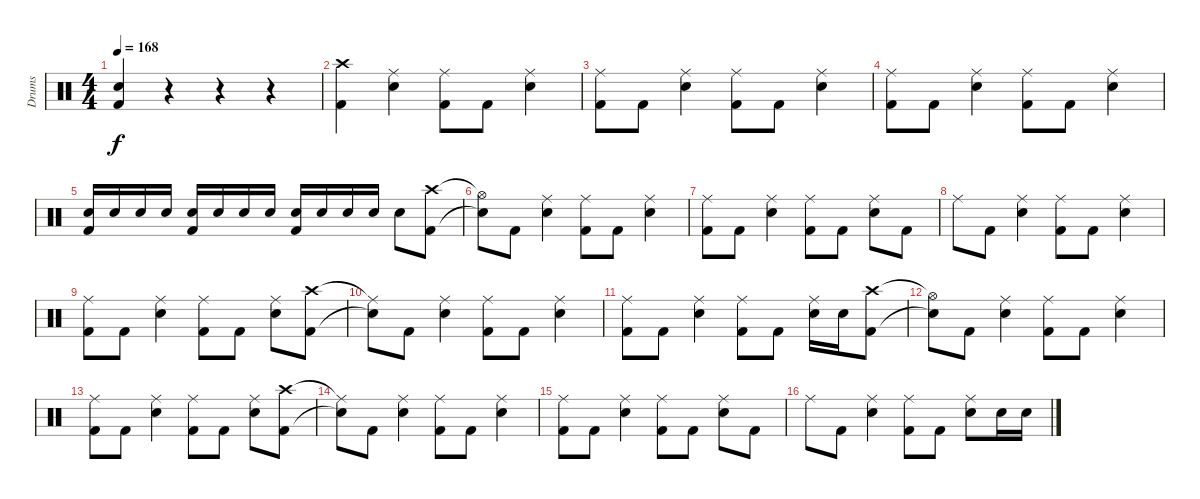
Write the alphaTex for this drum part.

\track ("Drums" "Drums") {instrument percussion}
\staff {score}
\articulation defaults
\ts (4 4)
\tempo 168
\clef neutral
\ks c
("Electric Snare (hit)" "Kick (hit) 2").4{dy f} r.4 r.4 r.4 |
("Crash high (hit)" "Kick (hit) 2").4 ("Ride (middle)" "Electric Snare (hit)").4 ("Ride (middle)" "Kick (hit) 2").8 "Kick (hit) 2".8 ("Ride (middle)" "Electric Snare (hit)").4 |
("Ride (middle)" "Kick (hit) 2").8 "Kick (hit) 2".8 ("Ride (middle)" "Electric Snare (hit)").4 ("Ride (middle)" "Kick (hit) 2").8 "Kick (hit) 2".8 ("Ride (middle)" "Electric Snare (hit)").4 |
("Ride (middle)" "Kick (hit) 2").8 "Kick (hit) 2".8 ("Ride (middle)" "Electric Snare (hit)").4 ("Ride (middle)" "Kick (hit) 2").8 "Kick (hit) 2".8 ("Ride (middle)" "Electric Snare (hit)").4 |
("Electric Snare (hit)" "Kick (hit) 2").16 "Electric Snare (hit)".16 "Electric Snare (hit)".16 "Electric Snare (hit)".16 ("Electric Snare (hit)" "Kick (hit) 2").16 "Electric Snare (hit)".16 "Electric Snare (hit)".16 "Electric Snare (hit)".16 ("Electric Snare (hit)" "Kick (hit) 2").16 "Electric Snare (hit)".16 "Electric Snare (hit)".16 "Electric Snare (hit)".16 "Electric Snare (hit)".8 ("Crash high (hit)" "Kick (hit) 2").8 |
("Hi-Hat (open)"{t} "Snare (hit)"{t}).8 "Kick (hit) 2".8 ("Ride (middle)" "Electric Snare (hit)").4 ("Ride (middle)" "Kick (hit) 2").8 "Kick (hit) 2".8 ("Ride (middle)" "Electric Snare (hit)").4 |
("Ride (middle)" "Kick (hit) 2").8 "Kick (hit) 2".8 ("Ride (middle)" "Electric Snare (hit)").4 ("Ride (middle)" "Kick (hit) 2").8 "Kick (hit) 2".8 ("Ride (middle)" "Electric Snare (hit)").8 "Kick (hit) 2".8 |
"Ride (middle)".8 "Kick (hit) 2".8 ("Ride (middle)" "Electric Snare (hit)").4 ("Ride (middle)" "Kick (hit) 2").8 "Kick (hit) 2".8 ("Ride (middle)" "Electric Snare (hit)").4 |
("Ride (middle)" "Kick (hit) 2").8 "Kick (hit) 2".8 ("Ride (middle)" "Electric Snare (hit)").4 ("Ride (middle)" "Kick (hit) 2").8 "Kick (hit) 2".8 ("Ride (middle)" "Electric Snare (hit)").8 ("Crash high (hit)" "Kick (hit) 2").8 |
("Ride (middle)"{t} "Snare (hit)"{t}).8 "Kick (hit) 2".8 ("Ride (middle)" "Electric Snare (hit)").4 ("Ride (middle)" "Kick (hit) 2").8 "Kick (hit) 2".8 ("Ride (middle)" "Electric Snare (hit)").4 |
("Ride (middle)" "Kick (hit) 2").8 "Kick (hit) 2".8 ("Ride (middle)" "Electric Snare (hit)").4 ("Ride (middle)" "Kick (hit) 2").8 "Kick (hit) 2".8 ("Ride (middle)" "Electric Snare (hit)").16 "Electric Snare (hit)".16 ("Crash high (hit)" "Kick (hit) 2").8 |
("Hi-Hat (open)"{t} "Snare (hit)"{t}).8 "Kick (hit) 2".8 ("Ride (middle)" "Electric Snare (hit)").4 ("Ride (middle)" "Kick (hit) 2").8 "Kick (hit) 2".8 ("Ride (middle)" "Electric Snare (hit)").4 |
("Ride (middle)" "Kick (hit) 2").8 "Kick (hit) 2".8 ("Ride (middle)" "Electric Snare (hit)").4 ("Ride (middle)" "Kick (hit) 2").8 "Kick (hit) 2".8 ("Ride (middle)" "Electric Snare (hit)").8 ("Crash high (hit)" "Kick (hit) 2").8 |
("Ride (middle)"{t} "Snare (hit)"{t}).8 "Kick (hit) 2".8 ("Ride (middle)" "Electric Snare (hit)").4 ("Ride (middle)" "Kick (hit) 2").8 "Kick (hit) 2".8 ("Ride (middle)" "Electric Snare (hit)").4 |
("Ride (middle)" "Kick (hit) 2").8 "Kick (hit) 2".8 ("Ride (middle)" "Electric Snare (hit)").4 ("Ride (middle)" "Kick (hit) 2").8 "Kick (hit) 2".8 ("Ride (middle)" "Electric Snare (hit)").8 "Kick (hit) 2".8 |
"Ride (middle)".8 "Kick (hit) 2".8 ("Ride (middle)" "Electric Snare (hit)").4 ("Ride (middle)" "Kick (hit) 2").8 "Kick (hit) 2".8 ("Ride (middle)" "Electric Snare (hit)").8 "Electric Snare (hit)".16 "Electric Snare (hit)".16
